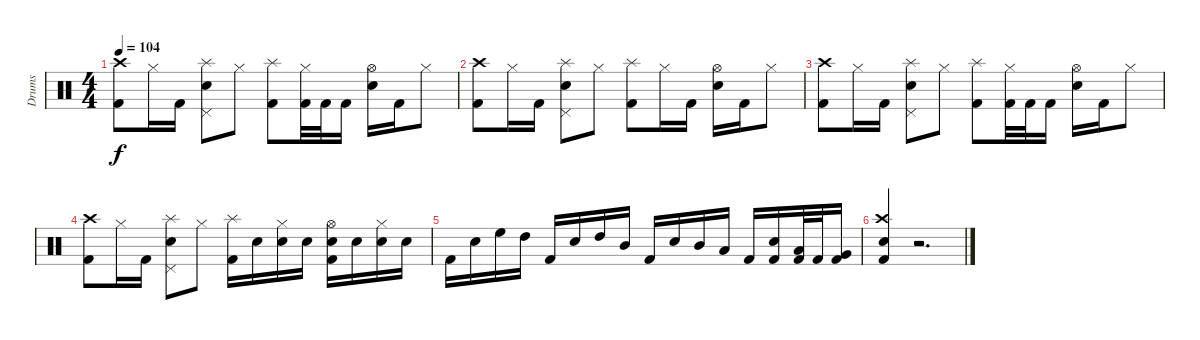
\track ("Drums" "Drums") {instrument percussion}
\staff {score}
\articulation defaults
\ts (4 4)
\tempo 104
\clef neutral
\ks c
("Kick (hit) 2" "Crash high (hit)").8{dy f} "Hi-Hat (closed)".16 "Kick (hit) 2".16 ("Snare (hit) 2" "Pedal Hi-Hat (hit)" "Splash (hit)").8 "Hi-Hat (closed)".8 ("Kick (hit) 2" "Splash (hit)").8 ("Kick (hit) 2" "Hi-Hat (closed)").32 "Kick (hit) 2".32 "Kick (hit) 2".16 ("Snare (hit) 2" "Hi-Hat (open)").16 "Kick (hit) 2".16 "Hi-Hat (closed)".8 |
("Kick (hit) 2" "Crash high (hit)").8 "Hi-Hat (closed)".16 "Kick (hit) 2".16 ("Snare (hit) 2" "Pedal Hi-Hat (hit)" "Splash (hit)").8 "Hi-Hat (closed)".8 ("Kick (hit) 2" "Splash (hit)").8 "Hi-Hat (closed)".16 "Kick (hit) 2".16 ("Snare (hit) 2" "Hi-Hat (open)").16 "Kick (hit) 2".16 "Hi-Hat (closed)".8 |
("Kick (hit) 2" "Crash high (hit)").8 "Hi-Hat (closed)".16 "Kick (hit) 2".16 ("Snare (hit) 2" "Pedal Hi-Hat (hit)" "Splash (hit)").8 "Hi-Hat (closed)".8 ("Kick (hit) 2" "Splash (hit)").8 ("Kick (hit) 2" "Hi-Hat (closed)").32 "Kick (hit) 2".32 "Kick (hit) 2".16 ("Snare (hit) 2" "Hi-Hat (open)").16 "Kick (hit) 2".16 "Hi-Hat (closed)".8 |
("Kick (hit) 2" "Crash high (hit)").8 "Hi-Hat (closed)".16 "Kick (hit) 2".16 ("Snare (hit) 2" "Pedal Hi-Hat (hit)" "Splash (hit)").8 "Hi-Hat (closed)".8 ("Kick (hit) 2" "Splash (hit)").16 "Snare (hit) 2".16 ("Snare (hit) 2" "Hi-Hat (closed)").16 "Snare (hit) 2".16 ("Kick (hit) 2" "Snare (hit) 2" "Hi-Hat (open)").16 "Snare (hit) 2".16 ("Snare (hit) 2" "Hi-Hat (closed)").16 "Snare (hit) 2".16 |
"Kick (hit) 2".16 "Snare (hit) 2".16 "High Floor Tom (hit)".16 "High Tom (hit)".16 "Kick (hit) 2".16 "Snare (hit) 2".16 "High Tom (hit)".16 "Mid Tom (hit)".16 "Kick (hit) 2".16 "Snare (hit) 2".16 "Mid Tom (hit)".16 "Low Tom (hit)".16 "Kick (hit) 2".16 ("Kick (hit) 2" "Snare (hit) 2").16 ("Kick (hit) 2" "Low Tom (hit)").32 "Kick (hit) 2".32 ("Kick (hit) 2" "Very Low Tom (hit)").16 |
("Kick (hit) 2" "Snare (hit) 2" "Crash high (hit)").4 r.2{d}
